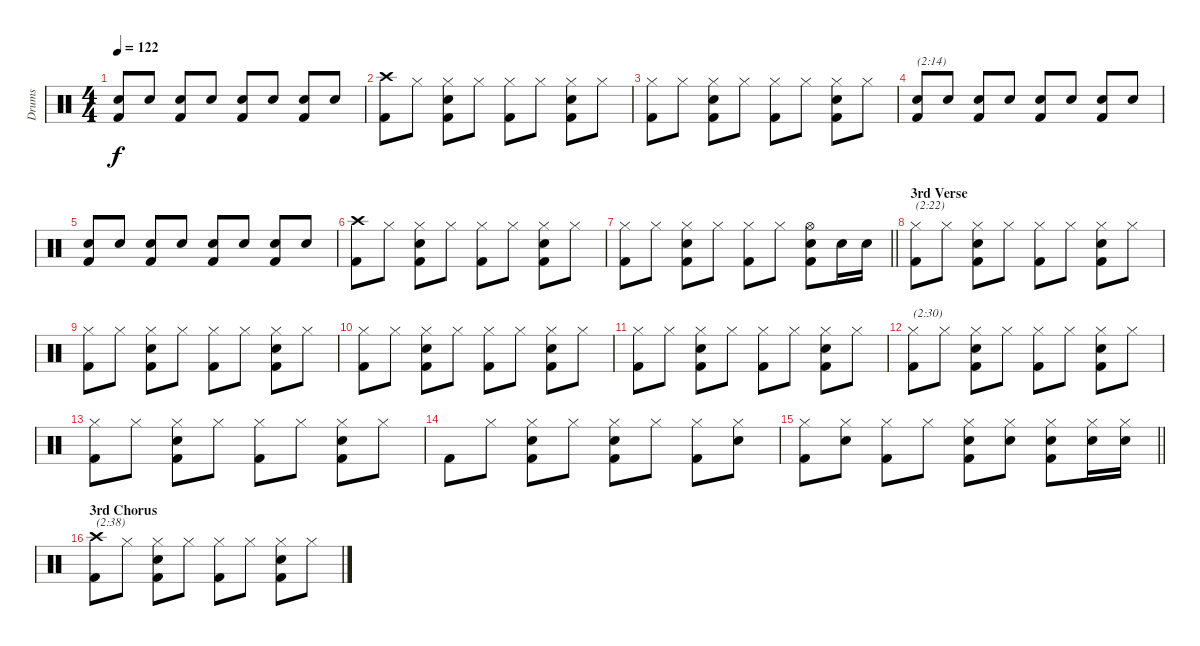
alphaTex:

\track ("Drums" "Drums") {instrument percussion}
\staff {score}
\articulation defaults
\ts (4 4)
\tempo 122
\clef neutral
\ks c
("Electric Snare (hit)" "Kick (hit) 2").8{dy f} "Electric Snare (hit)".8 ("Electric Snare (hit)" "Kick (hit) 2").8 "Electric Snare (hit)".8 ("Electric Snare (hit)" "Kick (hit) 2").8 "Electric Snare (hit)".8 ("Electric Snare (hit)" "Kick (hit) 2").8 "Electric Snare (hit)".8 |
("Crash high (hit)" "Kick (hit) 2").8 "Hi-Hat (closed)".8 ("Hi-Hat (closed)" "Electric Snare (hit)" "Kick (hit) 2").8 "Hi-Hat (closed)".8 ("Hi-Hat (closed)" "Kick (hit) 2").8 "Hi-Hat (closed)".8 ("Hi-Hat (closed)" "Electric Snare (hit)" "Kick (hit) 2").8 "Hi-Hat (closed)".8 |
("Hi-Hat (closed)" "Kick (hit) 2").8 "Hi-Hat (closed)".8 ("Hi-Hat (closed)" "Electric Snare (hit)" "Kick (hit) 2").8 "Hi-Hat (closed)".8 ("Hi-Hat (closed)" "Kick (hit) 2").8 "Hi-Hat (closed)".8 ("Hi-Hat (closed)" "Electric Snare (hit)" "Kick (hit) 2").8 "Hi-Hat (closed)".8 |
("Electric Snare (hit)" "Kick (hit) 2").8{txt "(2:14)"} "Electric Snare (hit)".8 ("Electric Snare (hit)" "Kick (hit) 2").8 "Electric Snare (hit)".8 ("Electric Snare (hit)" "Kick (hit) 2").8 "Electric Snare (hit)".8 ("Electric Snare (hit)" "Kick (hit) 2").8 "Electric Snare (hit)".8 |
("Electric Snare (hit)" "Kick (hit) 2").8 "Electric Snare (hit)".8 ("Electric Snare (hit)" "Kick (hit) 2").8 "Electric Snare (hit)".8 ("Electric Snare (hit)" "Kick (hit) 2").8 "Electric Snare (hit)".8 ("Electric Snare (hit)" "Kick (hit) 2").8 "Electric Snare (hit)".8 |
("Crash high (hit)" "Kick (hit) 2").8 "Hi-Hat (closed)".8 ("Hi-Hat (closed)" "Electric Snare (hit)" "Kick (hit) 2").8 "Hi-Hat (closed)".8 ("Hi-Hat (closed)" "Kick (hit) 2").8 "Hi-Hat (closed)".8 ("Hi-Hat (closed)" "Electric Snare (hit)" "Kick (hit) 2").8 "Hi-Hat (closed)".8 |
\barLineRight lightlight
("Hi-Hat (closed)" "Kick (hit) 2").8 "Hi-Hat (closed)".8 ("Hi-Hat (closed)" "Electric Snare (hit)" "Kick (hit) 2").8 "Hi-Hat (closed)".8 ("Hi-Hat (closed)" "Kick (hit) 2").8 "Hi-Hat (closed)".8 ("Hi-Hat (open)" "Electric Snare (hit)" "Kick (hit) 2").8 "Electric Snare (hit)".16 "Electric Snare (hit)".16 |
\section ("" "3rd Verse")
("Hi-Hat (closed)" "Kick (hit) 2").8{txt "(2:22)"} "Hi-Hat (closed)".8 ("Hi-Hat (closed)" "Electric Snare (hit)" "Kick (hit) 2").8 "Hi-Hat (closed)".8 ("Hi-Hat (closed)" "Kick (hit) 2").8 "Hi-Hat (closed)".8 ("Hi-Hat (closed)" "Electric Snare (hit)" "Kick (hit) 2").8 "Hi-Hat (closed)".8 |
("Hi-Hat (closed)" "Kick (hit) 2").8 "Hi-Hat (closed)".8 ("Hi-Hat (closed)" "Electric Snare (hit)" "Kick (hit) 2").8 "Hi-Hat (closed)".8 ("Hi-Hat (closed)" "Kick (hit) 2").8 "Hi-Hat (closed)".8 ("Hi-Hat (closed)" "Electric Snare (hit)" "Kick (hit) 2").8 "Hi-Hat (closed)".8 |
("Hi-Hat (closed)" "Kick (hit) 2").8 "Hi-Hat (closed)".8 ("Hi-Hat (closed)" "Electric Snare (hit)" "Kick (hit) 2").8 "Hi-Hat (closed)".8 ("Hi-Hat (closed)" "Kick (hit) 2").8 "Hi-Hat (closed)".8 ("Hi-Hat (closed)" "Electric Snare (hit)" "Kick (hit) 2").8 "Hi-Hat (closed)".8 |
("Hi-Hat (closed)" "Kick (hit) 2").8 "Hi-Hat (closed)".8 ("Hi-Hat (closed)" "Electric Snare (hit)" "Kick (hit) 2").8 "Hi-Hat (closed)".8 ("Hi-Hat (closed)" "Kick (hit) 2").8 "Hi-Hat (closed)".8 ("Hi-Hat (closed)" "Electric Snare (hit)" "Kick (hit) 2").8 "Hi-Hat (closed)".8 |
("Hi-Hat (closed)" "Kick (hit) 2").8{txt "(2:30)"} "Hi-Hat (closed)".8 ("Hi-Hat (closed)" "Electric Snare (hit)" "Kick (hit) 2").8 "Hi-Hat (closed)".8 ("Hi-Hat (closed)" "Kick (hit) 2").8 "Hi-Hat (closed)".8 ("Hi-Hat (closed)" "Electric Snare (hit)" "Kick (hit) 2").8 "Hi-Hat (closed)".8 |
("Hi-Hat (closed)" "Kick (hit) 2").8 "Hi-Hat (closed)".8 ("Hi-Hat (closed)" "Electric Snare (hit)" "Kick (hit) 2").8 "Hi-Hat (closed)".8 ("Hi-Hat (closed)" "Kick (hit) 2").8 "Hi-Hat (closed)".8 ("Hi-Hat (closed)" "Electric Snare (hit)" "Kick (hit) 2").8 "Hi-Hat (closed)".8 |
"Kick (hit) 2".8 "Hi-Hat (closed)".8 ("Hi-Hat (closed)" "Electric Snare (hit)" "Kick (hit) 2").8 "Hi-Hat (closed)".8 ("Hi-Hat (closed)" "Electric Snare (hit)" "Kick (hit) 2").8 "Hi-Hat (closed)".8 ("Hi-Hat (closed)" "Kick (hit) 2").8 ("Hi-Hat (closed)" "Electric Snare (hit)").8 |
\barLineRight lightlight
("Hi-Hat (closed)" "Kick (hit) 2").8 ("Hi-Hat (closed)" "Electric Snare (hit)").8 ("Hi-Hat (closed)" "Kick (hit) 2").8 "Hi-Hat (closed)".8 ("Hi-Hat (closed)" "Electric Snare (hit)" "Kick (hit) 2").8 ("Hi-Hat (closed)" "Electric Snare (hit)").8 ("Hi-Hat (closed)" "Electric Snare (hit)" "Kick (hit) 2").8 ("Hi-Hat (closed)" "Electric Snare (hit)").16 ("Hi-Hat (closed)" "Electric Snare (hit)").16 |
\section ("" "3rd Chorus")
("Crash high (hit)" "Kick (hit) 2").8{txt "(2:38)"} "Hi-Hat (closed)".8 ("Hi-Hat (closed)" "Electric Snare (hit)" "Kick (hit) 2").8 "Hi-Hat (closed)".8 ("Hi-Hat (closed)" "Kick (hit) 2").8 "Hi-Hat (closed)".8 ("Hi-Hat (closed)" "Electric Snare (hit)" "Kick (hit) 2").8 "Hi-Hat (closed)".8
